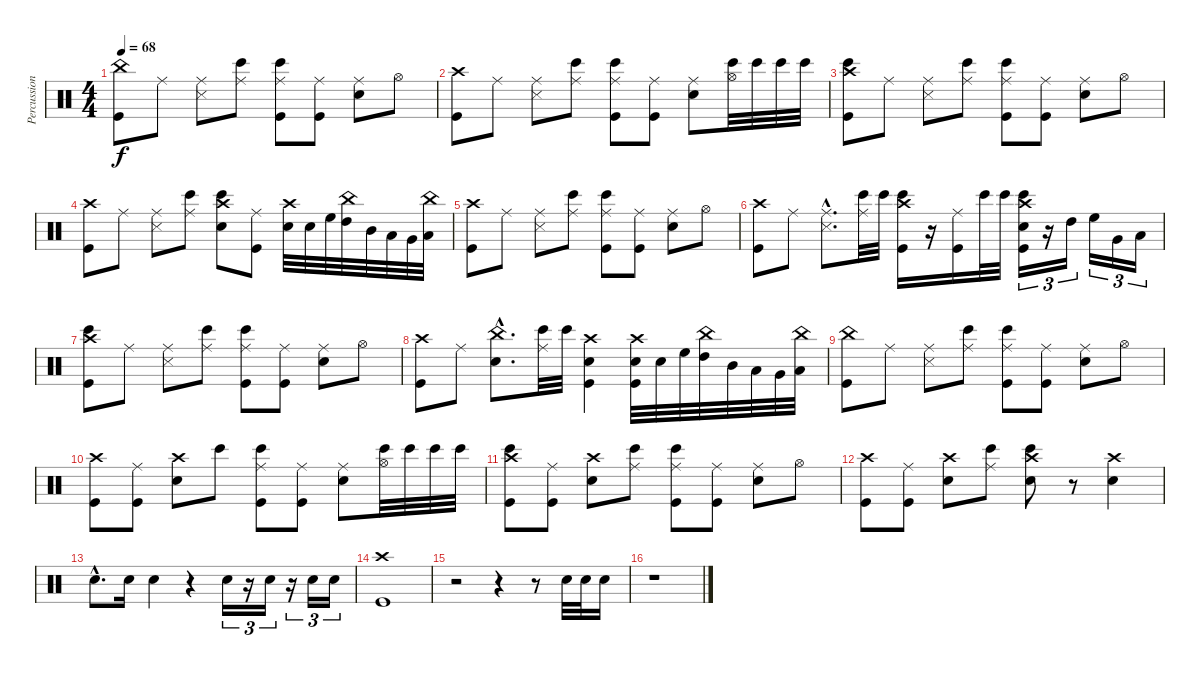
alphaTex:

\track ("Percussion" "Percussion") {instrument percussion}
\staff {score}
\articulation defaults
\ts (4 4)
\tempo 68
\clef neutral
\ks c
("China (hit)" "Kick (hit)").8{dy f} "Ride (middle)".8 ("Ride (middle)" "Snare (side stick) 3").8 ("Ride (middle)" "Bongo High (hit)").8 ("Ride (middle)" "Bongo High (hit)" "Kick (hit)").8 ("Ride (middle)" "Kick (hit)").8 ("Ride (middle)" "Snare (hit) 2").8 "Hi-Hat (open)".8 |
("Crash high (hit)" "Kick (hit)").8 "Ride (middle)".8 ("Ride (middle)" "Snare (side stick) 3").8 ("Ride (middle)" "Bongo High (hit)").8 ("Ride (middle)" "Bongo High (hit)" "Kick (hit)").8 ("Ride (middle)" "Kick (hit)").8 ("Ride (middle)" "Snare (hit) 2").8 ("Hi-Hat (open)" "Bongo High (hit)").32 "Bongo High (hit)".32 "Bongo High (hit)".32 "Bongo High (hit)".32 |
("Crash high (hit)" "Bongo High (hit)" "Kick (hit)").8 "Ride (middle)".8 ("Ride (middle)" "Snare (side stick) 3").8 ("Ride (middle)" "Bongo High (hit)").8 ("Ride (middle)" "Bongo High (hit)" "Kick (hit)").8 ("Ride (middle)" "Kick (hit)").8 ("Ride (middle)" "Snare (hit) 2").8 "Hi-Hat (open)".8 |
("Crash high (hit)" "Kick (hit)").8 "Ride (middle)".8 ("Ride (middle)" "Snare (side stick) 3").8 ("Ride (middle)" "Bongo High (hit)").8 ("Crash high (hit)" "Bongo High (hit)" "Snare (hit) 2").8 ("Ride (middle)" "Kick (hit)").8 ("Crash high (hit)" "Snare (hit) 2").32 "Snare (hit) 2".32 "High Floor Tom (hit)".32 ("High Tom (hit)" "China (hit)").32 "Mid Tom (hit)".32 "Low Tom (hit)".32 "Very Low Tom (hit)".32 ("Low Floor Tom (hit)" "China (hit)").32 |
("Crash high (hit)" "Kick (hit)").8 "Ride (middle)".8 ("Ride (middle)" "Snare (side stick) 3").8 ("Ride (middle)" "Bongo High (hit)").8 ("Ride (middle)" "Bongo High (hit)" "Kick (hit)").8 ("Ride (middle)" "Kick (hit)").8 ("Ride (middle)" "Snare (hit) 2").8 "Hi-Hat (open)".8 |
("Crash high (hit)" "Kick (hit)").8 "Ride (middle)".8 ("Ride (middle)"{hac} "Snare (side stick) 3"{hac}).8{d} ("Ride (middle)" "Bongo High (hit)").32 "Bongo High (hit)".32 ("Crash high (hit)" "Bongo High (hit)" "Kick (hit)").16 r.16 ("Ride (middle)" "Kick (hit)").16 "Bongo High (hit)".32 "Bongo High (hit)".32 ("Crash high (hit)" "Bongo High (hit)" "Snare (hit) 2" "Kick (hit)").16{tu (3 2)} r.16{tu (3 2)} "High Tom (hit)".16{tu (3 2)} "High Floor Tom (hit)".16{tu (3 2)} "Very Low Tom (hit)".16{tu (3 2)} "Low Floor Tom (hit)".16{tu (3 2)} |
("Crash high (hit)" "Bongo High (hit)" "Kick (hit)").8 "Ride (middle)".8 ("Ride (middle)" "Snare (side stick) 3").8 ("Ride (middle)" "Bongo High (hit)").8 ("Ride (middle)" "Bongo High (hit)" "Kick (hit)").8 ("Ride (middle)" "Kick (hit)").8 ("Ride (middle)" "Snare (hit) 2").8 "Hi-Hat (open)".8 |
("Crash high (hit)" "Kick (hit)").8 "Ride (middle)".8 ("China (hit)"{hac} "Snare (hit) 2"{hac}).8{d} ("Ride (middle)" "Bongo High (hit)").32 "Bongo High (hit)".32 ("Crash high (hit)" "Snare (hit) 2" "Kick (hit)").4 ("Crash high (hit)" "Snare (hit) 2" "Kick (hit)").32 "Snare (hit) 2".32 "High Floor Tom (hit)".32 ("High Tom (hit)" "China (hit)").32 "Mid Tom (hit)".32 "Low Tom (hit)".32 "Very Low Tom (hit)".32 ("Low Floor Tom (hit)" "China (hit)").32 |
("China (hit)" "Kick (hit)").8 "Ride (middle)".8 ("Ride (middle)" "Snare (side stick) 3").8 ("Ride (middle)" "Bongo High (hit)").8 ("Ride (middle)" "Bongo High (hit)" "Kick (hit)").8 ("Ride (middle)" "Kick (hit)").8 ("Ride (middle)" "Snare (hit) 2").8 "Hi-Hat (open)".8 |
("Crash high (hit)" "Kick (hit)").8 ("Ride (middle)" "Kick (hit)").8 ("Crash high (hit)" "Snare (hit) 2").8 "Bongo High (hit)".8 ("Ride (middle)" "Bongo High (hit)" "Kick (hit)").8 ("Ride (middle)" "Kick (hit)").8 ("Ride (middle)" "Snare (hit) 2").8 ("Hi-Hat (open)" "Bongo High (hit)").32 "Bongo High (hit)".32 "Bongo High (hit)".32 "Bongo High (hit)".32 |
("Crash high (hit)" "Bongo High (hit)" "Kick (hit)").8 ("Ride (middle)" "Kick (hit)").8 ("Crash high (hit)" "Snare (hit) 2").8 ("Ride (middle)" "Bongo High (hit)").8 ("Ride (middle)" "Bongo High (hit)" "Kick (hit)").8 ("Ride (middle)" "Kick (hit)").8 ("Ride (middle)" "Snare (hit) 2").8 "Hi-Hat (open)".8 |
("Crash high (hit)" "Kick (hit)").8 ("Ride (middle)" "Kick (hit)").8 ("Crash high (hit)" "Snare (hit) 2").8 ("Ride (middle)" "Bongo High (hit)").8 ("Crash high (hit)" "Bongo High (hit)" "Snare (hit) 2").8 r.8 ("Crash high (hit)" "Snare (hit) 2").4 |
"Snare (hit) 2"{hac}.8{d} "Snare (hit) 2".16 "Snare (hit) 2".4 r.4 "Snare (hit) 2".16{tu (3 2)} r.16{tu (3 2)} "Snare (hit) 2".16{tu (3 2)} r.16{tu (3 2)} "Snare (hit) 2".16{tu (3 2)} "Snare (hit) 2".16{tu (3 2)} |
("Crash high (hit)" "Kick (hit)").1 |
r.2 r.4 r.8 "Snare (hit) 2".32 "Snare (hit) 2".32 "Snare (hit) 2".16 |
r.1
